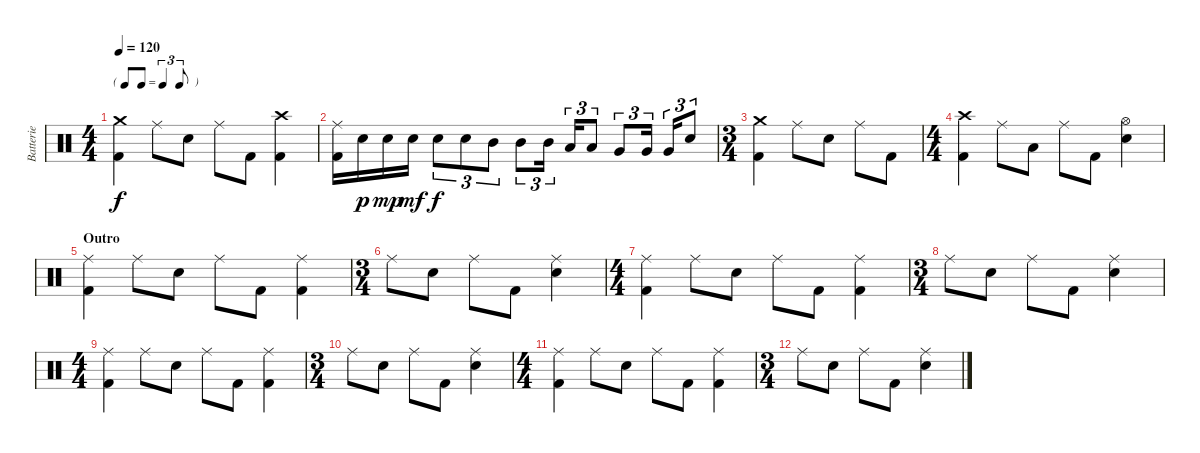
\track ("Batterie" "Batterie") {instrument percussion}
\staff {score}
\articulation defaults
\ts (4 4)
\tf triplet8th
\tempo 120
\clef neutral
\ks c
("Crash medium (hit)" "Kick (hit) 2").4{dy f} "Ride (middle)".8 "Electric Snare (hit)".8 "Ride (middle)".8 "Kick (hit) 2".8 ("Crash high (hit)" "Kick (hit) 2").4 |
("Ride (middle)" "Kick (hit) 2").16 "Electric Snare (hit)".16{dy p} "Electric Snare (hit)".16{dy mp} "Electric Snare (hit)".16{dy mf} "Electric Snare (hit)".8{tu (3 2) dy f} "Electric Snare (hit)".8{tu (3 2)} "Mid Tom (hit)".8{tu (3 2)} "Mid Tom (hit)".8{tu (3 2)} "Mid Tom (hit)".16{tu (3 2)} "Low Tom (hit)".16{tu (3 2)} "Low Tom (hit)".8{tu (3 2)} "Very Low Tom (hit)".8{tu (3 2)} "Very Low Tom (hit)".16{tu (3 2)} "Very Low Tom (hit)".16{tu (3 2)} "Snare (hit)".8{tu (3 2)} |
\ts (3 4)
("Crash medium (hit)" "Kick (hit) 2").4 "Ride (middle)".8 "Electric Snare (hit)".8 "Ride (middle)".8 "Kick (hit) 2".8 |
\ts (4 4)
("Crash high (hit)" "Kick (hit) 2").4 "Ride (middle)".8 "Low Tom (hit)".8 "Ride (middle)".8 "Kick (hit) 2".8 ("Hi-Hat (open)" "Electric Snare (hit)").4 |
\section ("" "Outro")
("Ride (middle)" "Kick (hit) 2").4 "Ride (middle)".8 "Electric Snare (hit)".8 "Ride (middle)".8 "Kick (hit) 2".8 ("Ride (middle)" "Kick (hit) 2").4 |
\ts (3 4)
"Ride (middle)".8 "Electric Snare (hit)".8 "Ride (middle)".8 "Kick (hit) 2".8 ("Ride (middle)" "Electric Snare (hit)").4 |
\ts (4 4)
("Ride (middle)" "Kick (hit) 2").4 "Ride (middle)".8 "Electric Snare (hit)".8 "Ride (middle)".8 "Kick (hit) 2".8 ("Ride (middle)" "Kick (hit) 2").4 |
\ts (3 4)
"Ride (middle)".8 "Electric Snare (hit)".8 "Ride (middle)".8 "Kick (hit) 2".8 ("Ride (middle)" "Electric Snare (hit)").4 |
\ts (4 4)
("Ride (middle)" "Kick (hit) 2").4 "Ride (middle)".8 "Electric Snare (hit)".8 "Ride (middle)".8 "Kick (hit) 2".8 ("Ride (middle)" "Kick (hit) 2").4 |
\ts (3 4)
"Ride (middle)".8 "Electric Snare (hit)".8 "Ride (middle)".8 "Kick (hit) 2".8 ("Ride (middle)" "Electric Snare (hit)").4 |
\ts (4 4)
("Ride (middle)" "Kick (hit) 2").4 "Ride (middle)".8 "Electric Snare (hit)".8 "Ride (middle)".8 "Kick (hit) 2".8 ("Ride (middle)" "Kick (hit) 2").4 |
\ts (3 4)
"Ride (middle)".8 "Electric Snare (hit)".8 "Ride (middle)".8 "Kick (hit) 2".8 ("Ride (middle)" "Electric Snare (hit)").4
